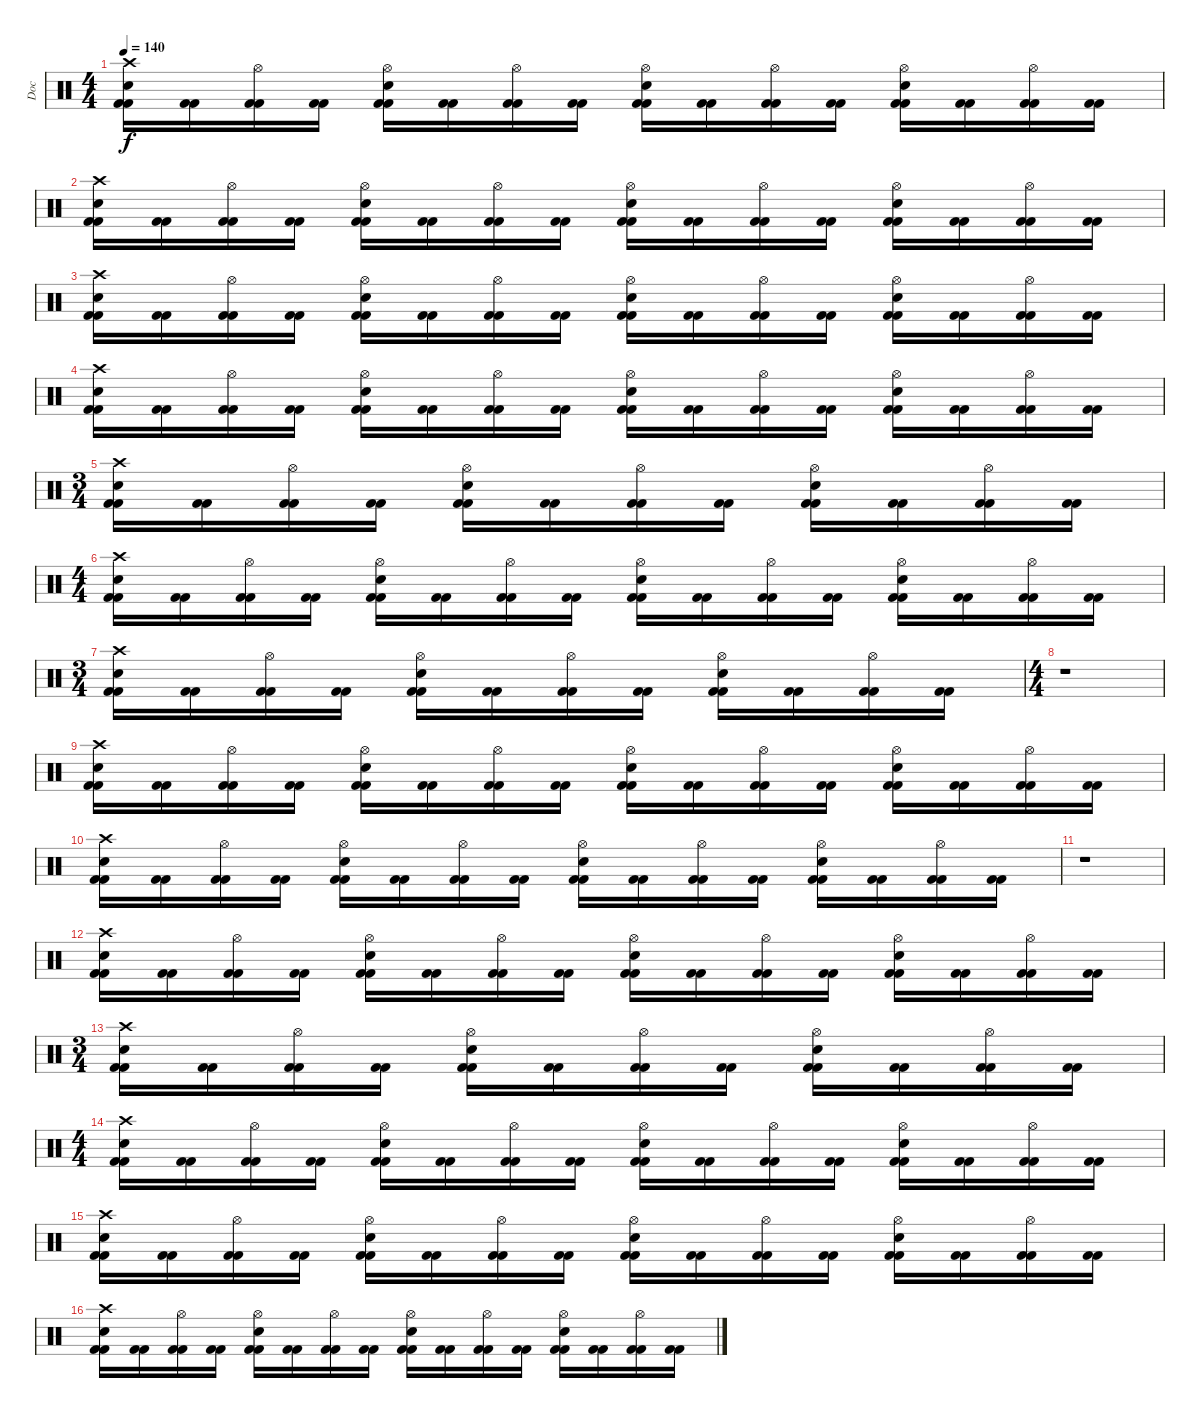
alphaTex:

\track ("Doc" "Doc") {instrument percussion}
\staff {score}
\articulation defaults
\ts (4 4)
\tempo 140
\clef neutral
\ks c
("Kick (hit) 2" "Crash high (hit)" "Electric Snare (hit)" "Kick (hit) 2").16{dy f} ("Kick (hit) 2" "Kick (hit) 2").16 ("Kick (hit) 2" "Hi-Hat (open)" "Kick (hit) 2").16 ("Kick (hit) 2" "Kick (hit) 2").16 ("Kick (hit) 2" "Hi-Hat (open)" "Electric Snare (hit)" "Kick (hit) 2").16 ("Kick (hit) 2" "Kick (hit) 2").16 ("Kick (hit) 2" "Hi-Hat (open)" "Kick (hit) 2").16 ("Kick (hit) 2" "Kick (hit) 2").16 ("Kick (hit) 2" "Hi-Hat (open)" "Electric Snare (hit)" "Kick (hit) 2").16 ("Kick (hit) 2" "Kick (hit) 2").16 ("Kick (hit) 2" "Hi-Hat (open)" "Kick (hit) 2").16 ("Kick (hit) 2" "Kick (hit) 2").16 ("Kick (hit) 2" "Hi-Hat (open)" "Electric Snare (hit)" "Kick (hit) 2").16 ("Kick (hit) 2" "Kick (hit) 2").16 ("Kick (hit) 2" "Hi-Hat (open)" "Kick (hit) 2").16 ("Kick (hit) 2" "Kick (hit) 2").16 |
("Kick (hit) 2" "Crash high (hit)" "Electric Snare (hit)" "Kick (hit) 2").16 ("Kick (hit) 2" "Kick (hit) 2").16 ("Kick (hit) 2" "Hi-Hat (open)" "Kick (hit) 2").16 ("Kick (hit) 2" "Kick (hit) 2").16 ("Kick (hit) 2" "Hi-Hat (open)" "Electric Snare (hit)" "Kick (hit) 2").16 ("Kick (hit) 2" "Kick (hit) 2").16 ("Kick (hit) 2" "Hi-Hat (open)" "Kick (hit) 2").16 ("Kick (hit) 2" "Kick (hit) 2").16 ("Kick (hit) 2" "Hi-Hat (open)" "Electric Snare (hit)" "Kick (hit) 2").16 ("Kick (hit) 2" "Kick (hit) 2").16 ("Kick (hit) 2" "Hi-Hat (open)" "Kick (hit) 2").16 ("Kick (hit) 2" "Kick (hit) 2").16 ("Kick (hit) 2" "Hi-Hat (open)" "Electric Snare (hit)" "Kick (hit) 2").16 ("Kick (hit) 2" "Kick (hit) 2").16 ("Kick (hit) 2" "Hi-Hat (open)" "Kick (hit) 2").16 ("Kick (hit) 2" "Kick (hit) 2").16 |
("Kick (hit) 2" "Crash high (hit)" "Electric Snare (hit)" "Kick (hit) 2").16 ("Kick (hit) 2" "Kick (hit) 2").16 ("Kick (hit) 2" "Hi-Hat (open)" "Kick (hit) 2").16 ("Kick (hit) 2" "Kick (hit) 2").16 ("Kick (hit) 2" "Hi-Hat (open)" "Electric Snare (hit)" "Kick (hit) 2").16 ("Kick (hit) 2" "Kick (hit) 2").16 ("Kick (hit) 2" "Hi-Hat (open)" "Kick (hit) 2").16 ("Kick (hit) 2" "Kick (hit) 2").16 ("Kick (hit) 2" "Hi-Hat (open)" "Electric Snare (hit)" "Kick (hit) 2").16 ("Kick (hit) 2" "Kick (hit) 2").16 ("Kick (hit) 2" "Hi-Hat (open)" "Kick (hit) 2").16 ("Kick (hit) 2" "Kick (hit) 2").16 ("Kick (hit) 2" "Hi-Hat (open)" "Electric Snare (hit)" "Kick (hit) 2").16 ("Kick (hit) 2" "Kick (hit) 2").16 ("Kick (hit) 2" "Hi-Hat (open)" "Kick (hit) 2").16 ("Kick (hit) 2" "Kick (hit) 2").16 |
("Kick (hit) 2" "Crash high (hit)" "Electric Snare (hit)" "Kick (hit) 2").16 ("Kick (hit) 2" "Kick (hit) 2").16 ("Kick (hit) 2" "Hi-Hat (open)" "Kick (hit) 2").16 ("Kick (hit) 2" "Kick (hit) 2").16 ("Kick (hit) 2" "Hi-Hat (open)" "Electric Snare (hit)" "Kick (hit) 2").16 ("Kick (hit) 2" "Kick (hit) 2").16 ("Kick (hit) 2" "Hi-Hat (open)" "Kick (hit) 2").16 ("Kick (hit) 2" "Kick (hit) 2").16 ("Kick (hit) 2" "Hi-Hat (open)" "Electric Snare (hit)" "Kick (hit) 2").16 ("Kick (hit) 2" "Kick (hit) 2").16 ("Kick (hit) 2" "Hi-Hat (open)" "Kick (hit) 2").16 ("Kick (hit) 2" "Kick (hit) 2").16 ("Kick (hit) 2" "Hi-Hat (open)" "Electric Snare (hit)" "Kick (hit) 2").16 ("Kick (hit) 2" "Kick (hit) 2").16 ("Kick (hit) 2" "Hi-Hat (open)" "Kick (hit) 2").16 ("Kick (hit) 2" "Kick (hit) 2").16 |
\ts (3 4)
("Kick (hit) 2" "Crash high (hit)" "Electric Snare (hit)" "Kick (hit) 2").16 ("Kick (hit) 2" "Kick (hit) 2").16 ("Kick (hit) 2" "Hi-Hat (open)" "Kick (hit) 2").16 ("Kick (hit) 2" "Kick (hit) 2").16 ("Kick (hit) 2" "Hi-Hat (open)" "Electric Snare (hit)" "Kick (hit) 2").16 ("Kick (hit) 2" "Kick (hit) 2").16 ("Kick (hit) 2" "Hi-Hat (open)" "Kick (hit) 2").16 ("Kick (hit) 2" "Kick (hit) 2").16 ("Kick (hit) 2" "Hi-Hat (open)" "Electric Snare (hit)" "Kick (hit) 2").16 ("Kick (hit) 2" "Kick (hit) 2").16 ("Kick (hit) 2" "Hi-Hat (open)" "Kick (hit) 2").16 ("Kick (hit) 2" "Kick (hit) 2").16 |
\ts (4 4)
("Kick (hit) 2" "Crash high (hit)" "Electric Snare (hit)" "Kick (hit) 2").16 ("Kick (hit) 2" "Kick (hit) 2").16 ("Kick (hit) 2" "Hi-Hat (open)" "Kick (hit) 2").16 ("Kick (hit) 2" "Kick (hit) 2").16 ("Kick (hit) 2" "Hi-Hat (open)" "Electric Snare (hit)" "Kick (hit) 2").16 ("Kick (hit) 2" "Kick (hit) 2").16 ("Kick (hit) 2" "Hi-Hat (open)" "Kick (hit) 2").16 ("Kick (hit) 2" "Kick (hit) 2").16 ("Kick (hit) 2" "Hi-Hat (open)" "Electric Snare (hit)" "Kick (hit) 2").16 ("Kick (hit) 2" "Kick (hit) 2").16 ("Kick (hit) 2" "Hi-Hat (open)" "Kick (hit) 2").16 ("Kick (hit) 2" "Kick (hit) 2").16 ("Kick (hit) 2" "Hi-Hat (open)" "Electric Snare (hit)" "Kick (hit) 2").16 ("Kick (hit) 2" "Kick (hit) 2").16 ("Kick (hit) 2" "Hi-Hat (open)" "Kick (hit) 2").16 ("Kick (hit) 2" "Kick (hit) 2").16 |
\ts (3 4)
("Kick (hit) 2" "Crash high (hit)" "Electric Snare (hit)" "Kick (hit) 2").16 ("Kick (hit) 2" "Kick (hit) 2").16 ("Kick (hit) 2" "Hi-Hat (open)" "Kick (hit) 2").16 ("Kick (hit) 2" "Kick (hit) 2").16 ("Kick (hit) 2" "Hi-Hat (open)" "Electric Snare (hit)" "Kick (hit) 2").16 ("Kick (hit) 2" "Kick (hit) 2").16 ("Kick (hit) 2" "Hi-Hat (open)" "Kick (hit) 2").16 ("Kick (hit) 2" "Kick (hit) 2").16 ("Kick (hit) 2" "Hi-Hat (open)" "Electric Snare (hit)" "Kick (hit) 2").16 ("Kick (hit) 2" "Kick (hit) 2").16 ("Kick (hit) 2" "Hi-Hat (open)" "Kick (hit) 2").16 ("Kick (hit) 2" "Kick (hit) 2").16 |
\ts (4 4)
r.1 |
("Kick (hit) 2" "Crash high (hit)" "Electric Snare (hit)" "Kick (hit) 2").16 ("Kick (hit) 2" "Kick (hit) 2").16 ("Kick (hit) 2" "Hi-Hat (open)" "Kick (hit) 2").16 ("Kick (hit) 2" "Kick (hit) 2").16 ("Kick (hit) 2" "Hi-Hat (open)" "Electric Snare (hit)" "Kick (hit) 2").16 ("Kick (hit) 2" "Kick (hit) 2").16 ("Kick (hit) 2" "Hi-Hat (open)" "Kick (hit) 2").16 ("Kick (hit) 2" "Kick (hit) 2").16 ("Kick (hit) 2" "Hi-Hat (open)" "Electric Snare (hit)" "Kick (hit) 2").16 ("Kick (hit) 2" "Kick (hit) 2").16 ("Kick (hit) 2" "Hi-Hat (open)" "Kick (hit) 2").16 ("Kick (hit) 2" "Kick (hit) 2").16 ("Kick (hit) 2" "Hi-Hat (open)" "Electric Snare (hit)" "Kick (hit) 2").16 ("Kick (hit) 2" "Kick (hit) 2").16 ("Kick (hit) 2" "Hi-Hat (open)" "Kick (hit) 2").16 ("Kick (hit) 2" "Kick (hit) 2").16 |
("Kick (hit) 2" "Crash high (hit)" "Electric Snare (hit)" "Kick (hit) 2").16 ("Kick (hit) 2" "Kick (hit) 2").16 ("Kick (hit) 2" "Hi-Hat (open)" "Kick (hit) 2").16 ("Kick (hit) 2" "Kick (hit) 2").16 ("Kick (hit) 2" "Hi-Hat (open)" "Electric Snare (hit)" "Kick (hit) 2").16 ("Kick (hit) 2" "Kick (hit) 2").16 ("Kick (hit) 2" "Hi-Hat (open)" "Kick (hit) 2").16 ("Kick (hit) 2" "Kick (hit) 2").16 ("Kick (hit) 2" "Hi-Hat (open)" "Electric Snare (hit)" "Kick (hit) 2").16 ("Kick (hit) 2" "Kick (hit) 2").16 ("Kick (hit) 2" "Hi-Hat (open)" "Kick (hit) 2").16 ("Kick (hit) 2" "Kick (hit) 2").16 ("Kick (hit) 2" "Hi-Hat (open)" "Electric Snare (hit)" "Kick (hit) 2").16 ("Kick (hit) 2" "Kick (hit) 2").16 ("Kick (hit) 2" "Hi-Hat (open)" "Kick (hit) 2").16 ("Kick (hit) 2" "Kick (hit) 2").16 |
r.1 |
("Kick (hit) 2" "Crash high (hit)" "Electric Snare (hit)" "Kick (hit) 2").16 ("Kick (hit) 2" "Kick (hit) 2").16 ("Kick (hit) 2" "Hi-Hat (open)" "Kick (hit) 2").16 ("Kick (hit) 2" "Kick (hit) 2").16 ("Kick (hit) 2" "Hi-Hat (open)" "Electric Snare (hit)" "Kick (hit) 2").16 ("Kick (hit) 2" "Kick (hit) 2").16 ("Kick (hit) 2" "Hi-Hat (open)" "Kick (hit) 2").16 ("Kick (hit) 2" "Kick (hit) 2").16 ("Kick (hit) 2" "Hi-Hat (open)" "Electric Snare (hit)" "Kick (hit) 2").16 ("Kick (hit) 2" "Kick (hit) 2").16 ("Kick (hit) 2" "Hi-Hat (open)" "Kick (hit) 2").16 ("Kick (hit) 2" "Kick (hit) 2").16 ("Kick (hit) 2" "Hi-Hat (open)" "Electric Snare (hit)" "Kick (hit) 2").16 ("Kick (hit) 2" "Kick (hit) 2").16 ("Kick (hit) 2" "Hi-Hat (open)" "Kick (hit) 2").16 ("Kick (hit) 2" "Kick (hit) 2").16 |
\ts (3 4)
("Kick (hit) 2" "Crash high (hit)" "Electric Snare (hit)" "Kick (hit) 2").16 ("Kick (hit) 2" "Kick (hit) 2").16 ("Kick (hit) 2" "Hi-Hat (open)" "Kick (hit) 2").16 ("Kick (hit) 2" "Kick (hit) 2").16 ("Kick (hit) 2" "Hi-Hat (open)" "Electric Snare (hit)" "Kick (hit) 2").16 ("Kick (hit) 2" "Kick (hit) 2").16 ("Kick (hit) 2" "Hi-Hat (open)" "Kick (hit) 2").16 ("Kick (hit) 2" "Kick (hit) 2").16 ("Kick (hit) 2" "Hi-Hat (open)" "Electric Snare (hit)" "Kick (hit) 2").16 ("Kick (hit) 2" "Kick (hit) 2").16 ("Kick (hit) 2" "Hi-Hat (open)" "Kick (hit) 2").16 ("Kick (hit) 2" "Kick (hit) 2").16 |
\ts (4 4)
("Kick (hit) 2" "Crash high (hit)" "Electric Snare (hit)" "Kick (hit) 2").16 ("Kick (hit) 2" "Kick (hit) 2").16 ("Kick (hit) 2" "Hi-Hat (open)" "Kick (hit) 2").16 ("Kick (hit) 2" "Kick (hit) 2").16 ("Kick (hit) 2" "Hi-Hat (open)" "Electric Snare (hit)" "Kick (hit) 2").16 ("Kick (hit) 2" "Kick (hit) 2").16 ("Kick (hit) 2" "Hi-Hat (open)" "Kick (hit) 2").16 ("Kick (hit) 2" "Kick (hit) 2").16 ("Kick (hit) 2" "Hi-Hat (open)" "Electric Snare (hit)" "Kick (hit) 2").16 ("Kick (hit) 2" "Kick (hit) 2").16 ("Kick (hit) 2" "Hi-Hat (open)" "Kick (hit) 2").16 ("Kick (hit) 2" "Kick (hit) 2").16 ("Kick (hit) 2" "Hi-Hat (open)" "Electric Snare (hit)" "Kick (hit) 2").16 ("Kick (hit) 2" "Kick (hit) 2").16 ("Kick (hit) 2" "Hi-Hat (open)" "Kick (hit) 2").16 ("Kick (hit) 2" "Kick (hit) 2").16 |
("Kick (hit) 2" "Crash high (hit)" "Electric Snare (hit)" "Kick (hit) 2").16 ("Kick (hit) 2" "Kick (hit) 2").16 ("Kick (hit) 2" "Hi-Hat (open)" "Kick (hit) 2").16 ("Kick (hit) 2" "Kick (hit) 2").16 ("Kick (hit) 2" "Hi-Hat (open)" "Electric Snare (hit)" "Kick (hit) 2").16 ("Kick (hit) 2" "Kick (hit) 2").16 ("Kick (hit) 2" "Hi-Hat (open)" "Kick (hit) 2").16 ("Kick (hit) 2" "Kick (hit) 2").16 ("Kick (hit) 2" "Hi-Hat (open)" "Electric Snare (hit)" "Kick (hit) 2").16 ("Kick (hit) 2" "Kick (hit) 2").16 ("Kick (hit) 2" "Hi-Hat (open)" "Kick (hit) 2").16 ("Kick (hit) 2" "Kick (hit) 2").16 ("Kick (hit) 2" "Hi-Hat (open)" "Electric Snare (hit)" "Kick (hit) 2").16 ("Kick (hit) 2" "Kick (hit) 2").16 ("Kick (hit) 2" "Hi-Hat (open)" "Kick (hit) 2").16 ("Kick (hit) 2" "Kick (hit) 2").16 |
("Kick (hit) 2" "Crash high (hit)" "Electric Snare (hit)" "Kick (hit) 2").16 ("Kick (hit) 2" "Kick (hit) 2").16 ("Kick (hit) 2" "Hi-Hat (open)" "Kick (hit) 2").16 ("Kick (hit) 2" "Kick (hit) 2").16 ("Kick (hit) 2" "Hi-Hat (open)" "Electric Snare (hit)" "Kick (hit) 2").16 ("Kick (hit) 2" "Kick (hit) 2").16 ("Kick (hit) 2" "Hi-Hat (open)" "Kick (hit) 2").16 ("Kick (hit) 2" "Kick (hit) 2").16 ("Kick (hit) 2" "Hi-Hat (open)" "Electric Snare (hit)" "Kick (hit) 2").16 ("Kick (hit) 2" "Kick (hit) 2").16 ("Kick (hit) 2" "Hi-Hat (open)" "Kick (hit) 2").16 ("Kick (hit) 2" "Kick (hit) 2").16 ("Kick (hit) 2" "Hi-Hat (open)" "Electric Snare (hit)" "Kick (hit) 2").16 ("Kick (hit) 2" "Kick (hit) 2").16 ("Kick (hit) 2" "Hi-Hat (open)" "Kick (hit) 2").16 ("Kick (hit) 2" "Kick (hit) 2").16
